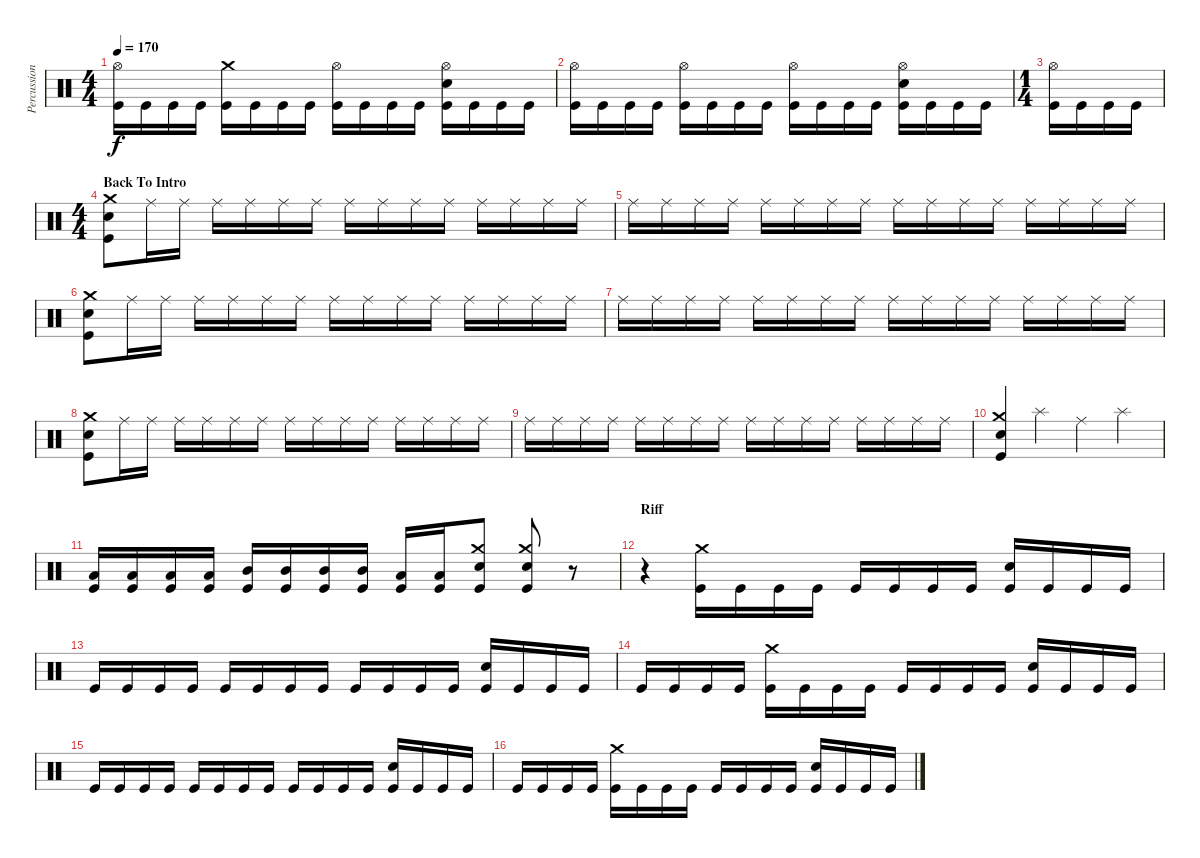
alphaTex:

\track ("Percussion" "Percussion") {instrument percussion}
\staff {score}
\articulation defaults
\ts (4 4)
\tempo 170
\clef neutral
\ks c
("Hi-Hat (open)" "Kick (hit)").16{dy f} "Kick (hit)".16 "Kick (hit)".16 "Kick (hit)".16 ("Crash medium (hit)" "Kick (hit)").16 "Kick (hit)".16 "Kick (hit)".16 "Kick (hit)".16 ("Hi-Hat (open)" "Kick (hit)").16 "Kick (hit)".16 "Kick (hit)".16 "Kick (hit)".16 ("Hi-Hat (open)" "Snare (hit) 2" "Kick (hit)").16 "Kick (hit)".16 "Kick (hit)".16 "Kick (hit)".16 |
("Hi-Hat (open)" "Kick (hit)").16 "Kick (hit)".16 "Kick (hit)".16 "Kick (hit)".16 ("Hi-Hat (open)" "Kick (hit)").16 "Kick (hit)".16 "Kick (hit)".16 "Kick (hit)".16 ("Hi-Hat (open)" "Kick (hit)").16 "Kick (hit)".16 "Kick (hit)".16 "Kick (hit)".16 ("Hi-Hat (open)" "Snare (hit) 2" "Kick (hit)").16 "Kick (hit)".16 "Kick (hit)".16 "Kick (hit)".16 |
\ts (1 4)
("Hi-Hat (open)" "Kick (hit)").16 "Kick (hit)".16 "Kick (hit)".16 "Kick (hit)".16 |
\ts (4 4)
\section ("" "Back To Intro")
("Crash medium (hit)" "Snare (hit) 2" "Kick (hit)").8 "Ride (middle)".16 "Ride (middle)".16 "Ride (middle)".16 "Ride (middle)".16 "Ride (middle)".16 "Ride (middle)".16 "Ride (middle)".16 "Ride (middle)".16 "Ride (middle)".16 "Ride (middle)".16 "Ride (middle)".16 "Ride (middle)".16 "Ride (middle)".16 "Ride (middle)".16 |
"Ride (middle)".16 "Ride (middle)".16 "Ride (middle)".16 "Ride (middle)".16 "Ride (middle)".16 "Ride (middle)".16 "Ride (middle)".16 "Ride (middle)".16 "Ride (middle)".16 "Ride (middle)".16 "Ride (middle)".16 "Ride (middle)".16 "Ride (middle)".16 "Ride (middle)".16 "Ride (middle)".16 "Ride (middle)".16 |
("Crash medium (hit)" "Snare (hit) 2" "Kick (hit)").8 "Ride (middle)".16 "Ride (middle)".16 "Ride (middle)".16 "Ride (middle)".16 "Ride (middle)".16 "Ride (middle)".16 "Ride (middle)".16 "Ride (middle)".16 "Ride (middle)".16 "Ride (middle)".16 "Ride (middle)".16 "Ride (middle)".16 "Ride (middle)".16 "Ride (middle)".16 |
"Ride (middle)".16 "Ride (middle)".16 "Ride (middle)".16 "Ride (middle)".16 "Ride (middle)".16 "Ride (middle)".16 "Ride (middle)".16 "Ride (middle)".16 "Ride (middle)".16 "Ride (middle)".16 "Ride (middle)".16 "Ride (middle)".16 "Ride (middle)".16 "Ride (middle)".16 "Ride (middle)".16 "Ride (middle)".16 |
("Crash medium (hit)" "Snare (hit) 2" "Kick (hit)").8 "Ride (middle)".16 "Ride (middle)".16 "Ride (middle)".16 "Ride (middle)".16 "Ride (middle)".16 "Ride (middle)".16 "Ride (middle)".16 "Ride (middle)".16 "Ride (middle)".16 "Ride (middle)".16 "Ride (middle)".16 "Ride (middle)".16 "Ride (middle)".16 "Ride (middle)".16 |
"Ride (middle)".16 "Ride (middle)".16 "Ride (middle)".16 "Ride (middle)".16 "Ride (middle)".16 "Ride (middle)".16 "Ride (middle)".16 "Ride (middle)".16 "Ride (middle)".16 "Ride (middle)".16 "Ride (middle)".16 "Ride (middle)".16 "Ride (middle)".16 "Ride (middle)".16 "Ride (middle)".16 "Ride (middle)".16 |
("Crash medium (hit)" "Snare (hit) 2" "Kick (hit)").4 "Splash (hit)".4 "Ride (middle)".4 "Splash (hit)".4 |
("Low Tom (hit)" "Kick (hit)").16 ("Low Tom (hit)" "Kick (hit)").16 ("Low Tom (hit)" "Kick (hit)").16 ("Low Tom (hit)" "Kick (hit)").16 ("Mid Tom (hit)" "Kick (hit)").16 ("Mid Tom (hit)" "Kick (hit)").16 ("Mid Tom (hit)" "Kick (hit)").16 ("Mid Tom (hit)" "Kick (hit)").16 ("Low Tom (hit)" "Kick (hit)").16 ("Low Tom (hit)" "Kick (hit)").16 ("Crash medium (hit)" "Snare (hit) 2" "Kick (hit)").8 ("Crash medium (hit)" "Snare (hit) 2" "Kick (hit)").8 r.8 |
\section ("" "Riff")
r.4 ("Crash medium (hit)" "Kick (hit)").16 "Kick (hit)".16 "Kick (hit)".16 "Kick (hit)".16 "Kick (hit)".16 "Kick (hit)".16 "Kick (hit)".16 "Kick (hit)".16 ("Snare (hit) 2" "Kick (hit)").16 "Kick (hit)".16 "Kick (hit)".16 "Kick (hit)".16 |
"Kick (hit)".16 "Kick (hit)".16 "Kick (hit)".16 "Kick (hit)".16 "Kick (hit)".16 "Kick (hit)".16 "Kick (hit)".16 "Kick (hit)".16 "Kick (hit)".16 "Kick (hit)".16 "Kick (hit)".16 "Kick (hit)".16 ("Snare (hit) 2" "Kick (hit)").16 "Kick (hit)".16 "Kick (hit)".16 "Kick (hit)".16 |
"Kick (hit)".16 "Kick (hit)".16 "Kick (hit)".16 "Kick (hit)".16 ("Crash medium (hit)" "Kick (hit)").16 "Kick (hit)".16 "Kick (hit)".16 "Kick (hit)".16 "Kick (hit)".16 "Kick (hit)".16 "Kick (hit)".16 "Kick (hit)".16 ("Snare (hit) 2" "Kick (hit)").16 "Kick (hit)".16 "Kick (hit)".16 "Kick (hit)".16 |
"Kick (hit)".16 "Kick (hit)".16 "Kick (hit)".16 "Kick (hit)".16 "Kick (hit)".16 "Kick (hit)".16 "Kick (hit)".16 "Kick (hit)".16 "Kick (hit)".16 "Kick (hit)".16 "Kick (hit)".16 "Kick (hit)".16 ("Snare (hit) 2" "Kick (hit)").16 "Kick (hit)".16 "Kick (hit)".16 "Kick (hit)".16 |
"Kick (hit)".16 "Kick (hit)".16 "Kick (hit)".16 "Kick (hit)".16 ("Crash medium (hit)" "Kick (hit)").16 "Kick (hit)".16 "Kick (hit)".16 "Kick (hit)".16 "Kick (hit)".16 "Kick (hit)".16 "Kick (hit)".16 "Kick (hit)".16 ("Snare (hit) 2" "Kick (hit)").16 "Kick (hit)".16 "Kick (hit)".16 "Kick (hit)".16
